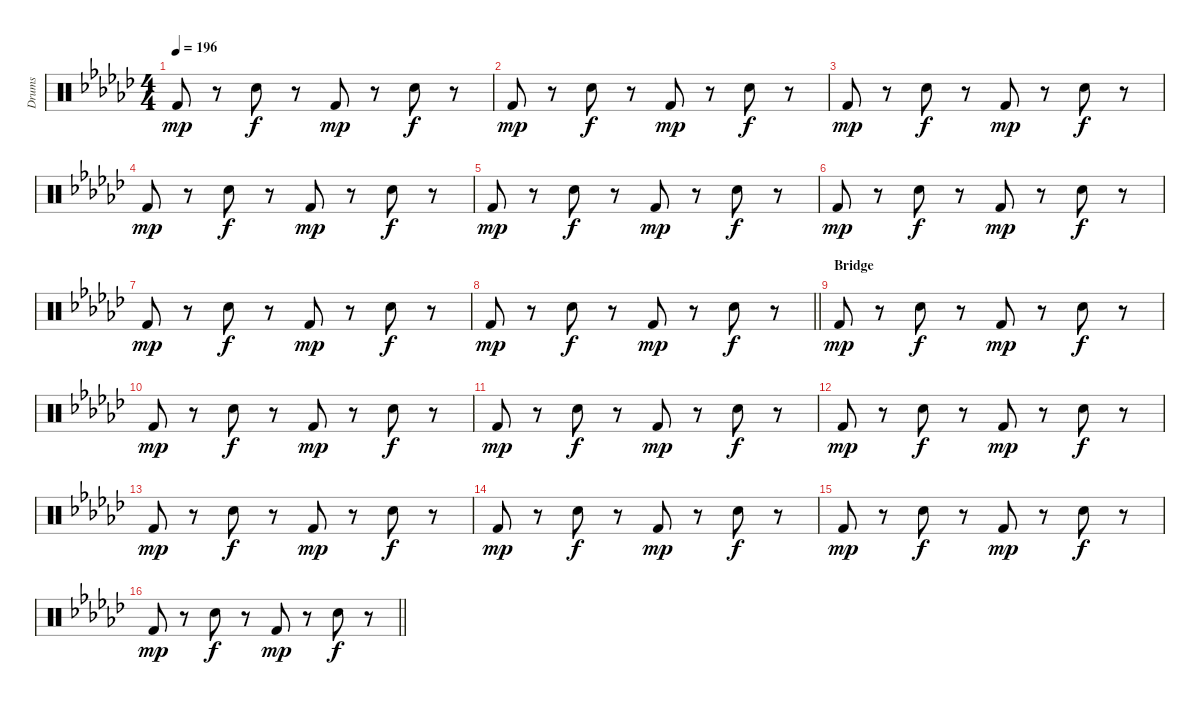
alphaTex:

\track ("Drums" "Drums") {instrument percussion}
\staff {score}
\articulation defaults
\ts (4 4)
\tempo 196
\clef neutral
\ks gb "Kick (hit) 2".8{dy mp}
r.8 "Snare (hit) 2".8{dy f} r.8 "Kick (hit) 2".8{dy mp} r.8 "Snare (hit) 2".8{dy f} r.8 |
"Kick (hit) 2".8{dy mp} r.8 "Snare (hit) 2".8{dy f} r.8 "Kick (hit) 2".8{dy mp} r.8 "Snare (hit) 2".8{dy f} r.8 |
"Kick (hit) 2".8{dy mp} r.8 "Snare (hit) 2".8{dy f} r.8 "Kick (hit) 2".8{dy mp} r.8 "Snare (hit) 2".8{dy f} r.8 |
"Kick (hit) 2".8{dy mp} r.8 "Snare (hit) 2".8{dy f} r.8 "Kick (hit) 2".8{dy mp} r.8 "Snare (hit) 2".8{dy f} r.8 |
"Kick (hit) 2".8{dy mp} r.8 "Snare (hit) 2".8{dy f} r.8 "Kick (hit) 2".8{dy mp} r.8 "Snare (hit) 2".8{dy f} r.8 |
"Kick (hit) 2".8{dy mp} r.8 "Snare (hit) 2".8{dy f} r.8 "Kick (hit) 2".8{dy mp} r.8 "Snare (hit) 2".8{dy f} r.8 |
"Kick (hit) 2".8{dy mp} r.8 "Snare (hit) 2".8{dy f} r.8 "Kick (hit) 2".8{dy mp} r.8 "Snare (hit) 2".8{dy f} r.8 |
\barLineRight lightlight "Kick (hit) 2".8{dy mp}
r.8 "Snare (hit) 2".8{dy f} r.8 "Kick (hit) 2".8{dy mp} r.8 "Snare (hit) 2".8{dy f} r.8 |
\section ("" "Bridge")
"Kick (hit) 2".8{dy mp} r.8 "Snare (hit) 2".8{dy f} r.8 "Kick (hit) 2".8{dy mp} r.8 "Snare (hit) 2".8{dy f} r.8 |
"Kick (hit) 2".8{dy mp} r.8 "Snare (hit) 2".8{dy f} r.8 "Kick (hit) 2".8{dy mp} r.8 "Snare (hit) 2".8{dy f} r.8 |
"Kick (hit) 2".8{dy mp} r.8 "Snare (hit) 2".8{dy f} r.8 "Kick (hit) 2".8{dy mp} r.8 "Snare (hit) 2".8{dy f} r.8 |
"Kick (hit) 2".8{dy mp} r.8 "Snare (hit) 2".8{dy f} r.8 "Kick (hit) 2".8{dy mp} r.8 "Snare (hit) 2".8{dy f} r.8 |
"Kick (hit) 2".8{dy mp} r.8 "Snare (hit) 2".8{dy f} r.8 "Kick (hit) 2".8{dy mp} r.8 "Snare (hit) 2".8{dy f} r.8 |
"Kick (hit) 2".8{dy mp} r.8 "Snare (hit) 2".8{dy f} r.8 "Kick (hit) 2".8{dy mp} r.8 "Snare (hit) 2".8{dy f} r.8 |
"Kick (hit) 2".8{dy mp} r.8 "Snare (hit) 2".8{dy f} r.8 "Kick (hit) 2".8{dy mp} r.8 "Snare (hit) 2".8{dy f} r.8 |
\barLineRight lightlight "Kick (hit) 2".8{dy mp}
r.8 "Snare (hit) 2".8{dy f} r.8 "Kick (hit) 2".8{dy mp} r.8 "Snare (hit) 2".8{dy f} r.8
